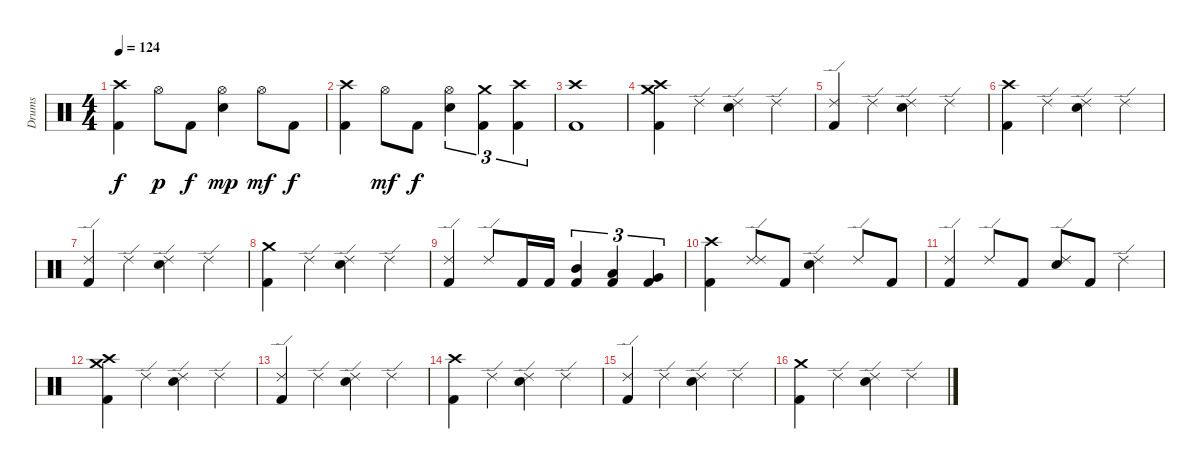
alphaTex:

\track ("Drums" "Drums") {instrument percussion}
\staff {score}
\articulation defaults
\ts (4 4)
\tempo 124
\clef neutral
\ks c
("Kick (hit) 2" "Crash high (hit)").4{dy f} "Hi-Hat (open)".8{dy p} "Kick (hit) 2".8{dy f} ("Electric Snare (hit)" "Hi-Hat (open)").4{dy mp} "Hi-Hat (open)".8{dy mf} "Kick (hit) 2".8{dy f} |
("Kick (hit) 2" "Crash high (hit)").4 "Hi-Hat (open)".8{dy mf} "Kick (hit) 2".8{dy f} ("Electric Snare (hit)" "Hi-Hat (open)").4{tu (3 2)} ("Kick (hit) 2" "Crash medium (hit)").4{tu (3 2)} ("Kick (hit) 2" "Crash high (hit)").4{tu (3 2)} |
("Kick (hit) 2" "Crash high (hit)").1 |
\section ("" "")
("Kick (hit) 2" "Crash medium (hit)" "Crash high (hit)").4 "Ride (edge) 2".4 ("Electric Snare (hit)" "Ride (edge) 2").4 "Ride (edge) 2".4 |
("Kick (hit) 2" "Ride (edge) 2").4 "Ride (edge) 2".4 ("Electric Snare (hit)" "Ride (edge) 2").4 "Ride (edge) 2".4 |
("Kick (hit) 2" "Crash high (hit)").4 "Ride (edge) 2".4 ("Electric Snare (hit)" "Ride (edge) 2").4 "Ride (edge) 2".4 |
("Kick (hit) 2" "Ride (edge) 2").4 "Ride (edge) 2".4 ("Electric Snare (hit)" "Ride (edge) 2").4 "Ride (edge) 2".4 |
("Kick (hit) 2" "Crash medium (hit)").4 "Ride (edge) 2".4 ("Electric Snare (hit)" "Ride (edge) 2").4 "Ride (edge) 2".4 |
("Kick (hit) 2" "Ride (edge) 2").4 "Ride (edge) 2".8 "Kick (hit) 2".16 "Kick (hit) 2".16 ("Kick (hit) 2" "Mid Tom (hit)").4{tu (3 2)} ("Kick (hit) 2" "Low Tom (hit)").4{tu (3 2)} ("Kick (hit) 2" "Very Low Tom (hit)").4{tu (3 2)} |
("Kick (hit) 2" "Crash high (hit)").4 ("Ride (edge) 2" "Ride (edge) 2").8 "Kick (hit) 2".8 ("Electric Snare (hit)" "Ride (edge) 2").4 "Ride (edge) 2".8 "Kick (hit) 2".8 |
("Kick (hit) 2" "Ride (edge) 2").4 "Ride (edge) 2".8 "Kick (hit) 2".8 ("Electric Snare (hit)" "Ride (edge) 2").8 "Kick (hit) 2".8 "Ride (edge) 2".4 |
\section ("" "")
("Kick (hit) 2" "Crash medium (hit)" "Crash high (hit)").4 "Ride (edge) 2".4 ("Electric Snare (hit)" "Ride (edge) 2").4 "Ride (edge) 2".4 |
("Kick (hit) 2" "Ride (edge) 2").4 "Ride (edge) 2".4 ("Electric Snare (hit)" "Ride (edge) 2").4 "Ride (edge) 2".4 |
("Kick (hit) 2" "Crash high (hit)").4 "Ride (edge) 2".4 ("Electric Snare (hit)" "Ride (edge) 2").4 "Ride (edge) 2".4 |
("Kick (hit) 2" "Ride (edge) 2").4 "Ride (edge) 2".4 ("Electric Snare (hit)" "Ride (edge) 2").4 "Ride (edge) 2".4 |
("Kick (hit) 2" "Crash medium (hit)").4 "Ride (edge) 2".4 ("Electric Snare (hit)" "Ride (edge) 2").4 "Ride (edge) 2".4
